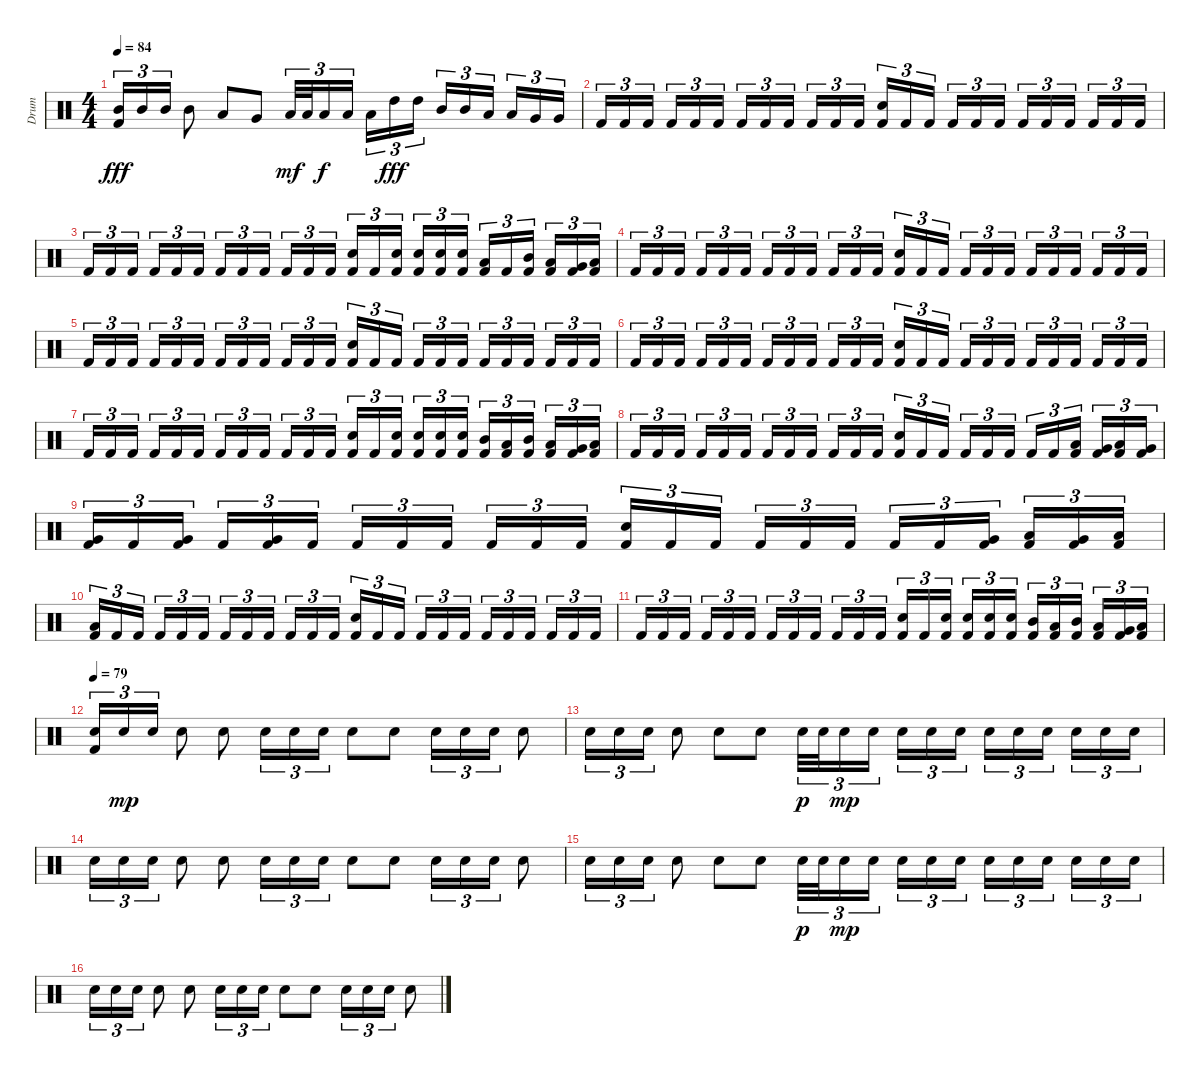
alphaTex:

\track ("Drum" "Drum") {instrument percussion}
\staff {score}
\articulation defaults
\ts (4 4)
\tempo 84
\clef neutral
\ks c
("Mid Tom (hit)" "Kick (hit) 2").16{tu (3 2) dy fff} "Mid Tom (hit)".16{tu (3 2)} "Mid Tom (hit)".16{tu (3 2)} "Mid Tom (hit)".8 "Low Tom (hit)".8 "Very Low Tom (hit)".8 "Low Floor Tom (hit)".32{tu (3 2) dy mf} "Low Floor Tom (hit)".32{tu (3 2)} "Low Floor Tom (hit)".16{tu (3 2) dy f} "Low Floor Tom (hit)".16{tu (3 2) beam splitsecondary} "Low Floor Tom (hit)".16{tu (3 2)} "High Tom (hit)".16{tu (3 2) dy fff} "High Tom (hit)".16{tu (3 2)} "Mid Tom (hit)".16{tu (3 2)} "Mid Tom (hit)".16{tu (3 2)} "Low Tom (hit)".16{tu (3 2) beam splitsecondary} "Low Tom (hit)".16{tu (3 2)} "Very Low Tom (hit)".16{tu (3 2)} "Very Low Tom (hit)".16{tu (3 2)} |
"Kick (hit) 2".16{tu (3 2)} "Kick (hit) 2".16{tu (3 2)} "Kick (hit) 2".16{tu (3 2) beam splitsecondary} "Kick (hit) 2".16{tu (3 2)} "Kick (hit) 2".16{tu (3 2)} "Kick (hit) 2".16{tu (3 2)} "Kick (hit) 2".16{tu (3 2)} "Kick (hit) 2".16{tu (3 2)} "Kick (hit) 2".16{tu (3 2) beam splitsecondary} "Kick (hit) 2".16{tu (3 2)} "Kick (hit) 2".16{tu (3 2)} "Kick (hit) 2".16{tu (3 2)} ("Snare (hit) 2" "Kick (hit) 2").16{tu (3 2)} "Kick (hit) 2".16{tu (3 2)} "Kick (hit) 2".16{tu (3 2) beam splitsecondary} "Kick (hit) 2".16{tu (3 2)} "Kick (hit) 2".16{tu (3 2)} "Kick (hit) 2".16{tu (3 2)} "Kick (hit) 2".16{tu (3 2)} "Kick (hit) 2".16{tu (3 2)} "Kick (hit) 2".16{tu (3 2) beam splitsecondary} "Kick (hit) 2".16{tu (3 2)} "Kick (hit) 2".16{tu (3 2)} "Kick (hit) 2".16{tu (3 2)} |
"Kick (hit) 2".16{tu (3 2)} "Kick (hit) 2".16{tu (3 2)} "Kick (hit) 2".16{tu (3 2) beam splitsecondary} "Kick (hit) 2".16{tu (3 2)} "Kick (hit) 2".16{tu (3 2)} "Kick (hit) 2".16{tu (3 2)} "Kick (hit) 2".16{tu (3 2)} "Kick (hit) 2".16{tu (3 2)} "Kick (hit) 2".16{tu (3 2) beam splitsecondary} "Kick (hit) 2".16{tu (3 2)} "Kick (hit) 2".16{tu (3 2)} "Kick (hit) 2".16{tu (3 2)} ("Snare (hit) 2" "Kick (hit) 2").16{tu (3 2)} "Kick (hit) 2".16{tu (3 2)} ("Snare (hit) 2" "Kick (hit) 2").16{tu (3 2) beam splitsecondary} ("Snare (hit) 2" "Kick (hit) 2").16{tu (3 2)} ("Snare (hit) 2" "Kick (hit) 2").16{tu (3 2)} ("Snare (hit) 2" "Kick (hit) 2").16{tu (3 2)} ("Low Tom (hit)" "Kick (hit) 2").16{tu (3 2)} "Kick (hit) 2".16{tu (3 2)} ("Mid Tom (hit)" "Kick (hit) 2").16{tu (3 2) beam splitsecondary} ("Low Tom (hit)" "Kick (hit) 2").16{tu (3 2)} ("Very Low Tom (hit)" "Kick (hit) 2").16{tu (3 2)} ("Low Floor Tom (hit)" "Kick (hit) 2").16{tu (3 2)} |
"Kick (hit) 2".16{tu (3 2)} "Kick (hit) 2".16{tu (3 2)} "Kick (hit) 2".16{tu (3 2) beam splitsecondary} "Kick (hit) 2".16{tu (3 2)} "Kick (hit) 2".16{tu (3 2)} "Kick (hit) 2".16{tu (3 2)} "Kick (hit) 2".16{tu (3 2)} "Kick (hit) 2".16{tu (3 2)} "Kick (hit) 2".16{tu (3 2) beam splitsecondary} "Kick (hit) 2".16{tu (3 2)} "Kick (hit) 2".16{tu (3 2)} "Kick (hit) 2".16{tu (3 2)} ("Snare (hit) 2" "Kick (hit) 2").16{tu (3 2)} "Kick (hit) 2".16{tu (3 2)} "Kick (hit) 2".16{tu (3 2) beam splitsecondary} "Kick (hit) 2".16{tu (3 2)} "Kick (hit) 2".16{tu (3 2)} "Kick (hit) 2".16{tu (3 2)} "Kick (hit) 2".16{tu (3 2)} "Kick (hit) 2".16{tu (3 2)} "Kick (hit) 2".16{tu (3 2) beam splitsecondary} "Kick (hit) 2".16{tu (3 2)} "Kick (hit) 2".16{tu (3 2)} "Kick (hit) 2".16{tu (3 2)} |
"Kick (hit) 2".16{tu (3 2)} "Kick (hit) 2".16{tu (3 2)} "Kick (hit) 2".16{tu (3 2) beam splitsecondary} "Kick (hit) 2".16{tu (3 2)} "Kick (hit) 2".16{tu (3 2)} "Kick (hit) 2".16{tu (3 2)} "Kick (hit) 2".16{tu (3 2)} "Kick (hit) 2".16{tu (3 2)} "Kick (hit) 2".16{tu (3 2) beam splitsecondary} "Kick (hit) 2".16{tu (3 2)} "Kick (hit) 2".16{tu (3 2)} "Kick (hit) 2".16{tu (3 2)} ("Snare (hit) 2" "Kick (hit) 2").16{tu (3 2)} "Kick (hit) 2".16{tu (3 2)} "Kick (hit) 2".16{tu (3 2) beam splitsecondary} "Kick (hit) 2".16{tu (3 2)} "Kick (hit) 2".16{tu (3 2)} "Kick (hit) 2".16{tu (3 2)} "Kick (hit) 2".16{tu (3 2)} "Kick (hit) 2".16{tu (3 2)} "Kick (hit) 2".16{tu (3 2) beam splitsecondary} "Kick (hit) 2".16{tu (3 2)} "Kick (hit) 2".16{tu (3 2)} "Kick (hit) 2".16{tu (3 2)} |
"Kick (hit) 2".16{tu (3 2)} "Kick (hit) 2".16{tu (3 2)} "Kick (hit) 2".16{tu (3 2) beam splitsecondary} "Kick (hit) 2".16{tu (3 2)} "Kick (hit) 2".16{tu (3 2)} "Kick (hit) 2".16{tu (3 2)} "Kick (hit) 2".16{tu (3 2)} "Kick (hit) 2".16{tu (3 2)} "Kick (hit) 2".16{tu (3 2) beam splitsecondary} "Kick (hit) 2".16{tu (3 2)} "Kick (hit) 2".16{tu (3 2)} "Kick (hit) 2".16{tu (3 2)} ("Snare (hit) 2" "Kick (hit) 2").16{tu (3 2)} "Kick (hit) 2".16{tu (3 2)} "Kick (hit) 2".16{tu (3 2) beam splitsecondary} "Kick (hit) 2".16{tu (3 2)} "Kick (hit) 2".16{tu (3 2)} "Kick (hit) 2".16{tu (3 2)} "Kick (hit) 2".16{tu (3 2)} "Kick (hit) 2".16{tu (3 2)} "Kick (hit) 2".16{tu (3 2) beam splitsecondary} "Kick (hit) 2".16{tu (3 2)} "Kick (hit) 2".16{tu (3 2)} "Kick (hit) 2".16{tu (3 2)} |
"Kick (hit) 2".16{tu (3 2)} "Kick (hit) 2".16{tu (3 2)} "Kick (hit) 2".16{tu (3 2) beam splitsecondary} "Kick (hit) 2".16{tu (3 2)} "Kick (hit) 2".16{tu (3 2)} "Kick (hit) 2".16{tu (3 2)} "Kick (hit) 2".16{tu (3 2)} "Kick (hit) 2".16{tu (3 2)} "Kick (hit) 2".16{tu (3 2) beam splitsecondary} "Kick (hit) 2".16{tu (3 2)} "Kick (hit) 2".16{tu (3 2)} "Kick (hit) 2".16{tu (3 2)} ("Snare (hit) 2" "Kick (hit) 2").16{tu (3 2)} "Kick (hit) 2".16{tu (3 2)} ("Snare (hit) 2" "Kick (hit) 2").16{tu (3 2) beam splitsecondary} ("Snare (hit) 2" "Kick (hit) 2").16{tu (3 2)} ("Snare (hit) 2" "Kick (hit) 2").16{tu (3 2)} ("Snare (hit) 2" "Kick (hit) 2").16{tu (3 2)} ("Mid Tom (hit)" "Kick (hit) 2").16{tu (3 2)} ("Low Tom (hit)" "Kick (hit) 2").16{tu (3 2)} ("Mid Tom (hit)" "Kick (hit) 2").16{tu (3 2) beam splitsecondary} ("Low Tom (hit)" "Kick (hit) 2").16{tu (3 2)} ("Very Low Tom (hit)" "Kick (hit) 2").16{tu (3 2)} ("Low Floor Tom (hit)" "Kick (hit) 2").16{tu (3 2)} |
"Kick (hit) 2".16{tu (3 2)} "Kick (hit) 2".16{tu (3 2)} "Kick (hit) 2".16{tu (3 2) beam splitsecondary} "Kick (hit) 2".16{tu (3 2)} "Kick (hit) 2".16{tu (3 2)} "Kick (hit) 2".16{tu (3 2)} "Kick (hit) 2".16{tu (3 2)} "Kick (hit) 2".16{tu (3 2)} "Kick (hit) 2".16{tu (3 2) beam splitsecondary} "Kick (hit) 2".16{tu (3 2)} "Kick (hit) 2".16{tu (3 2)} "Kick (hit) 2".16{tu (3 2)} ("Snare (hit) 2" "Kick (hit) 2").16{tu (3 2)} "Kick (hit) 2".16{tu (3 2)} "Kick (hit) 2".16{tu (3 2) beam splitsecondary} "Kick (hit) 2".16{tu (3 2)} "Kick (hit) 2".16{tu (3 2)} "Kick (hit) 2".16{tu (3 2)} "Kick (hit) 2".16{tu (3 2)} "Kick (hit) 2".16{tu (3 2)} ("Low Tom (hit)" "Kick (hit) 2").16{tu (3 2) beam splitsecondary} ("Very Low Tom (hit)" "Kick (hit) 2").16{tu (3 2)} ("Low Tom (hit)" "Kick (hit) 2").16{tu (3 2)} ("Very Low Tom (hit)" "Kick (hit) 2").16{tu (3 2)} |
("Very Low Tom (hit)" "Kick (hit) 2").16{tu (3 2)} "Kick (hit) 2".16{tu (3 2)} ("Very Low Tom (hit)" "Kick (hit) 2").16{tu (3 2) beam splitsecondary} "Kick (hit) 2".16{tu (3 2)} ("Very Low Tom (hit)" "Kick (hit) 2").16{tu (3 2)} "Kick (hit) 2".16{tu (3 2)} "Kick (hit) 2".16{tu (3 2)} "Kick (hit) 2".16{tu (3 2)} "Kick (hit) 2".16{tu (3 2) beam splitsecondary} "Kick (hit) 2".16{tu (3 2)} "Kick (hit) 2".16{tu (3 2)} "Kick (hit) 2".16{tu (3 2)} ("Snare (hit) 2" "Kick (hit) 2").16{tu (3 2)} "Kick (hit) 2".16{tu (3 2)} "Kick (hit) 2".16{tu (3 2) beam splitsecondary} "Kick (hit) 2".16{tu (3 2)} "Kick (hit) 2".16{tu (3 2)} "Kick (hit) 2".16{tu (3 2)} "Kick (hit) 2".16{tu (3 2)} "Kick (hit) 2".16{tu (3 2)} ("Very Low Tom (hit)" "Kick (hit) 2").16{tu (3 2) beam splitsecondary} ("Low Floor Tom (hit)" "Kick (hit) 2").16{tu (3 2)} ("Very Low Tom (hit)" "Kick (hit) 2").16{tu (3 2)} ("Low Floor Tom (hit)" "Kick (hit) 2").16{tu (3 2)} |
("Low Floor Tom (hit)" "Kick (hit) 2").16{tu (3 2)} "Kick (hit) 2".16{tu (3 2)} "Kick (hit) 2".16{tu (3 2) beam splitsecondary} "Kick (hit) 2".16{tu (3 2)} "Kick (hit) 2".16{tu (3 2)} "Kick (hit) 2".16{tu (3 2)} "Kick (hit) 2".16{tu (3 2)} "Kick (hit) 2".16{tu (3 2)} "Kick (hit) 2".16{tu (3 2) beam splitsecondary} "Kick (hit) 2".16{tu (3 2)} "Kick (hit) 2".16{tu (3 2)} "Kick (hit) 2".16{tu (3 2)} ("Snare (hit) 2" "Kick (hit) 2").16{tu (3 2)} "Kick (hit) 2".16{tu (3 2)} "Kick (hit) 2".16{tu (3 2) beam splitsecondary} "Kick (hit) 2".16{tu (3 2)} "Kick (hit) 2".16{tu (3 2)} "Kick (hit) 2".16{tu (3 2)} "Kick (hit) 2".16{tu (3 2)} "Kick (hit) 2".16{tu (3 2)} "Kick (hit) 2".16{tu (3 2) beam splitsecondary} "Kick (hit) 2".16{tu (3 2)} "Kick (hit) 2".16{tu (3 2)} "Kick (hit) 2".16{tu (3 2)} |
"Kick (hit) 2".16{tu (3 2)} "Kick (hit) 2".16{tu (3 2)} "Kick (hit) 2".16{tu (3 2) beam splitsecondary} "Kick (hit) 2".16{tu (3 2)} "Kick (hit) 2".16{tu (3 2)} "Kick (hit) 2".16{tu (3 2)} "Kick (hit) 2".16{tu (3 2)} "Kick (hit) 2".16{tu (3 2)} "Kick (hit) 2".16{tu (3 2) beam splitsecondary} "Kick (hit) 2".16{tu (3 2)} "Kick (hit) 2".16{tu (3 2)} "Kick (hit) 2".16{tu (3 2)} ("Snare (hit) 2" "Kick (hit) 2").16{tu (3 2)} "Kick (hit) 2".16{tu (3 2)} ("Snare (hit) 2" "Kick (hit) 2").16{tu (3 2) beam splitsecondary} ("Snare (hit) 2" "Kick (hit) 2").16{tu (3 2)} ("Snare (hit) 2" "Kick (hit) 2").16{tu (3 2)} ("Snare (hit) 2" "Kick (hit) 2").16{tu (3 2)} ("Mid Tom (hit)" "Kick (hit) 2").16{tu (3 2)} ("Low Tom (hit)" "Kick (hit) 2").16{tu (3 2)} ("Mid Tom (hit)" "Kick (hit) 2").16{tu (3 2) beam splitsecondary} ("Low Tom (hit)" "Kick (hit) 2").16{tu (3 2)} ("Very Low Tom (hit)" "Kick (hit) 2").16{tu (3 2)} ("Low Floor Tom (hit)" "Kick (hit) 2").16{tu (3 2)} |
\tempo 79
("Snare (hit) 2" "Kick (hit) 2").16{tu (3 2)} "Snare (hit) 2".16{tu (3 2) dy mp} "Snare (hit) 2".16{tu (3 2)} "Snare (hit) 2".8 "Snare (hit) 2".8 "Snare (hit) 2".16{tu (3 2)} "Snare (hit) 2".16{tu (3 2)} "Snare (hit) 2".16{tu (3 2)} "Snare (hit) 2".8 "Snare (hit) 2".8 "Snare (hit) 2".16{tu (3 2)} "Snare (hit) 2".16{tu (3 2)} "Snare (hit) 2".16{tu (3 2)} "Snare (hit) 2".8 |
"Snare (hit) 2".16{tu (3 2)} "Snare (hit) 2".16{tu (3 2)} "Snare (hit) 2".16{tu (3 2)} "Snare (hit) 2".8 "Snare (hit) 2".8 "Snare (hit) 2".8 "Snare (hit) 2".32{tu (3 2) dy p} "Snare (hit) 2".32{tu (3 2)} "Snare (hit) 2".16{tu (3 2) dy mp} "Snare (hit) 2".16{tu (3 2) beam splitsecondary} "Snare (hit) 2".16{tu (3 2)} "Snare (hit) 2".16{tu (3 2)} "Snare (hit) 2".16{tu (3 2)} "Snare (hit) 2".16{tu (3 2)} "Snare (hit) 2".16{tu (3 2)} "Snare (hit) 2".16{tu (3 2) beam splitsecondary} "Snare (hit) 2".16{tu (3 2)} "Snare (hit) 2".16{tu (3 2)} "Snare (hit) 2".16{tu (3 2)} |
"Snare (hit) 2".16{tu (3 2)} "Snare (hit) 2".16{tu (3 2)} "Snare (hit) 2".16{tu (3 2)} "Snare (hit) 2".8 "Snare (hit) 2".8 "Snare (hit) 2".16{tu (3 2)} "Snare (hit) 2".16{tu (3 2)} "Snare (hit) 2".16{tu (3 2)} "Snare (hit) 2".8 "Snare (hit) 2".8 "Snare (hit) 2".16{tu (3 2)} "Snare (hit) 2".16{tu (3 2)} "Snare (hit) 2".16{tu (3 2)} "Snare (hit) 2".8 |
"Snare (hit) 2".16{tu (3 2)} "Snare (hit) 2".16{tu (3 2)} "Snare (hit) 2".16{tu (3 2)} "Snare (hit) 2".8 "Snare (hit) 2".8 "Snare (hit) 2".8 "Snare (hit) 2".32{tu (3 2) dy p} "Snare (hit) 2".32{tu (3 2)} "Snare (hit) 2".16{tu (3 2) dy mp} "Snare (hit) 2".16{tu (3 2) beam splitsecondary} "Snare (hit) 2".16{tu (3 2)} "Snare (hit) 2".16{tu (3 2)} "Snare (hit) 2".16{tu (3 2)} "Snare (hit) 2".16{tu (3 2)} "Snare (hit) 2".16{tu (3 2)} "Snare (hit) 2".16{tu (3 2) beam splitsecondary} "Snare (hit) 2".16{tu (3 2)} "Snare (hit) 2".16{tu (3 2)} "Snare (hit) 2".16{tu (3 2)} |
"Snare (hit) 2".16{tu (3 2)} "Snare (hit) 2".16{tu (3 2)} "Snare (hit) 2".16{tu (3 2)} "Snare (hit) 2".8 "Snare (hit) 2".8 "Snare (hit) 2".16{tu (3 2)} "Snare (hit) 2".16{tu (3 2)} "Snare (hit) 2".16{tu (3 2)} "Snare (hit) 2".8 "Snare (hit) 2".8 "Snare (hit) 2".16{tu (3 2)} "Snare (hit) 2".16{tu (3 2)} "Snare (hit) 2".16{tu (3 2)} "Snare (hit) 2".8
